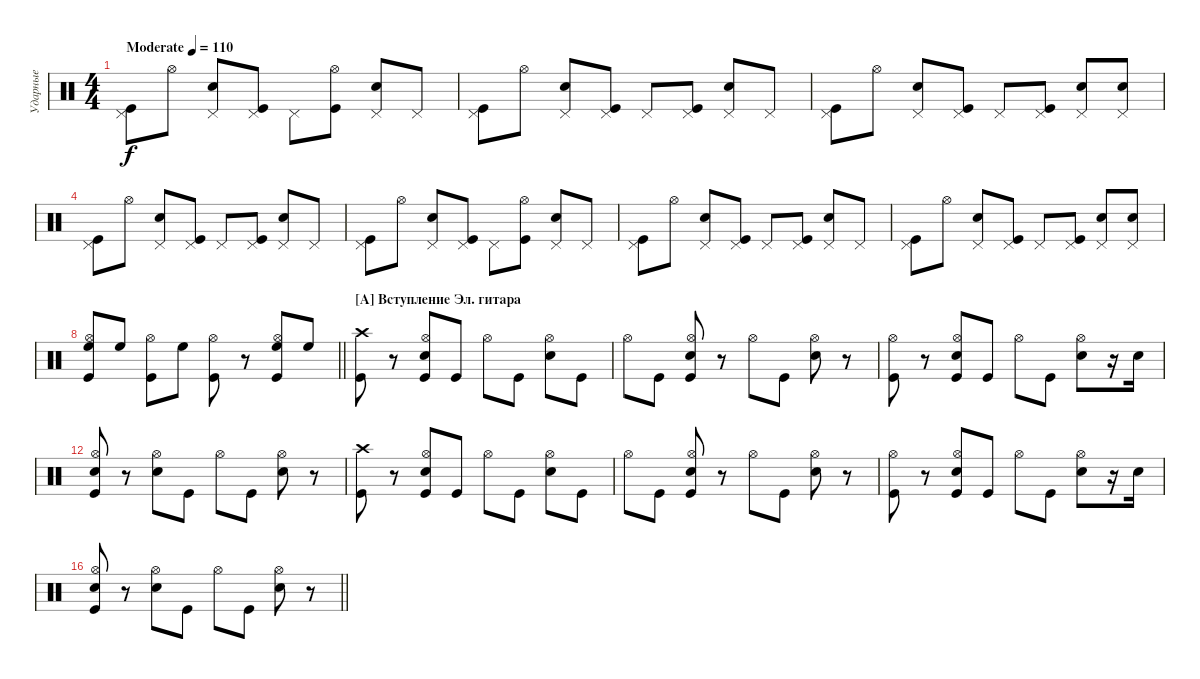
\bracketExtendMode groupsimilarinstruments
\multiTrackTrackNamePolicy hidden
\firstSystemTrackNameMode fullname
\otherSystemsTrackNameMode fullname
\otherSystemsTrackNameOrientation horizontal
\defaultBarNumberDisplay FirstOfSystem
\track ("Ударные" "Drums") {multiBarRest instrument percussion}
\staff {score}
\articulation defaults
\ts (4 4)
\beaming (8 2 2 2 2)
\tempo (110 "Moderate")
\clef neutral
\ks c
("Pedal Hi-Hat (hit)" "Kick (hit)").8{dy f} "Hi-Hat (open)".8 ("Pedal Hi-Hat (hit)" "Snare (hit) 2").8 ("Pedal Hi-Hat (hit)" "Kick (hit)").8 "Pedal Hi-Hat (hit)".8 ("Hi-Hat (open)" "Kick (hit)").8 ("Pedal Hi-Hat (hit)" "Snare (hit) 2").8 "Pedal Hi-Hat (hit)".8 |
("Pedal Hi-Hat (hit)" "Kick (hit)").8 "Hi-Hat (open)".8 ("Pedal Hi-Hat (hit)" "Snare (hit) 2").8 ("Pedal Hi-Hat (hit)" "Kick (hit)").8 "Pedal Hi-Hat (hit)".8 ("Pedal Hi-Hat (hit)" "Kick (hit)").8 ("Pedal Hi-Hat (hit)" "Snare (hit) 2").8 "Pedal Hi-Hat (hit)".8 |
("Pedal Hi-Hat (hit)" "Kick (hit)").8 "Hi-Hat (open)".8 ("Pedal Hi-Hat (hit)" "Snare (hit) 2").8 ("Pedal Hi-Hat (hit)" "Kick (hit)").8 "Pedal Hi-Hat (hit)".8 ("Pedal Hi-Hat (hit)" "Kick (hit)").8 ("Pedal Hi-Hat (hit)" "Snare (hit) 2").8 ("Pedal Hi-Hat (hit)" "Snare (hit) 2").8 |
("Pedal Hi-Hat (hit)" "Kick (hit)").8 "Hi-Hat (open)".8 ("Pedal Hi-Hat (hit)" "Snare (hit) 2").8 ("Pedal Hi-Hat (hit)" "Kick (hit)").8 "Pedal Hi-Hat (hit)".8 ("Pedal Hi-Hat (hit)" "Kick (hit)").8 ("Pedal Hi-Hat (hit)" "Snare (hit) 2").8 "Pedal Hi-Hat (hit)".8 |
("Pedal Hi-Hat (hit)" "Kick (hit)").8 "Hi-Hat (open)".8 ("Pedal Hi-Hat (hit)" "Snare (hit) 2").8 ("Pedal Hi-Hat (hit)" "Kick (hit)").8 "Pedal Hi-Hat (hit)".8 ("Hi-Hat (open)" "Kick (hit)").8 ("Pedal Hi-Hat (hit)" "Snare (hit) 2").8 "Pedal Hi-Hat (hit)".8 |
("Pedal Hi-Hat (hit)" "Kick (hit)").8 "Hi-Hat (open)".8 ("Pedal Hi-Hat (hit)" "Snare (hit) 2").8 ("Pedal Hi-Hat (hit)" "Kick (hit)").8 "Pedal Hi-Hat (hit)".8 ("Pedal Hi-Hat (hit)" "Kick (hit)").8 ("Pedal Hi-Hat (hit)" "Snare (hit) 2").8 "Pedal Hi-Hat (hit)".8 |
("Pedal Hi-Hat (hit)" "Kick (hit)").8 "Hi-Hat (open)".8 ("Pedal Hi-Hat (hit)" "Snare (hit) 2").8 ("Pedal Hi-Hat (hit)" "Kick (hit)").8 "Pedal Hi-Hat (hit)".8 ("Pedal Hi-Hat (hit)" "Kick (hit)").8 ("Pedal Hi-Hat (hit)" "Snare (hit) 2").8 ("Pedal Hi-Hat (hit)" "Snare (hit) 2").8 |
\barLineRight lightlight
("Hi-Hat (open)" "High Floor Tom (hit)" "Kick (hit)").8 "High Floor Tom (hit)".8 ("Hi-Hat (open)" "Kick (hit)").8 "High Floor Tom (hit)".8 ("Hi-Hat (open)" "Kick (hit)").8 r.8 ("Hi-Hat (open)" "High Floor Tom (hit)" "Kick (hit)").8 "High Floor Tom (hit)".8 |
\section ("A" "Вступление Эл. гитара")
("Crash high (hit)" "Kick (hit)").8 r.8 ("Hi-Hat (open)" "Snare (hit) 2" "Kick (hit)").8 "Kick (hit)".8 "Hi-Hat (open)".8 "Kick (hit)".8 ("Hi-Hat (open)" "Snare (hit) 2").8 "Kick (hit)".8 |
"Hi-Hat (open)".8 "Kick (hit)".8 ("Hi-Hat (open)" "Snare (hit) 2" "Kick (hit)").8 r.8 "Hi-Hat (open)".8 "Kick (hit)".8 ("Hi-Hat (open)" "Snare (hit) 2").8 r.8 |
("Hi-Hat (open)" "Kick (hit)").8 r.8 ("Hi-Hat (open)" "Snare (hit) 2" "Kick (hit)").8 "Kick (hit)".8 "Hi-Hat (open)".8 "Kick (hit)".8 ("Hi-Hat (open)" "Snare (hit) 2").8 r.16 "Snare (hit) 2".16 |
("Hi-Hat (open)" "Snare (hit) 2" "Kick (hit)").8 r.8 ("Hi-Hat (open)" "Snare (hit) 2").8 "Kick (hit)".8 "Hi-Hat (open)".8 "Kick (hit)".8 ("Hi-Hat (open)" "Snare (hit) 2").8 r.8 |
("Crash high (hit)" "Kick (hit)").8 r.8 ("Hi-Hat (open)" "Snare (hit) 2" "Kick (hit)").8 "Kick (hit)".8 "Hi-Hat (open)".8 "Kick (hit)".8 ("Hi-Hat (open)" "Snare (hit) 2").8 "Kick (hit)".8 |
"Hi-Hat (open)".8 "Kick (hit)".8 ("Hi-Hat (open)" "Snare (hit) 2" "Kick (hit)").8 r.8 "Hi-Hat (open)".8 "Kick (hit)".8 ("Hi-Hat (open)" "Snare (hit) 2").8 r.8 |
("Hi-Hat (open)" "Kick (hit)").8 r.8 ("Hi-Hat (open)" "Snare (hit) 2" "Kick (hit)").8 "Kick (hit)".8 "Hi-Hat (open)".8 "Kick (hit)".8 ("Hi-Hat (open)" "Snare (hit) 2").8 r.16 "Snare (hit) 2".16 |
\barLineRight lightlight
("Hi-Hat (open)" "Snare (hit) 2" "Kick (hit)").8 r.8 ("Hi-Hat (open)" "Snare (hit) 2").8 "Kick (hit)".8 "Hi-Hat (open)".8 "Kick (hit)".8 ("Hi-Hat (open)" "Snare (hit) 2").8 r.8
